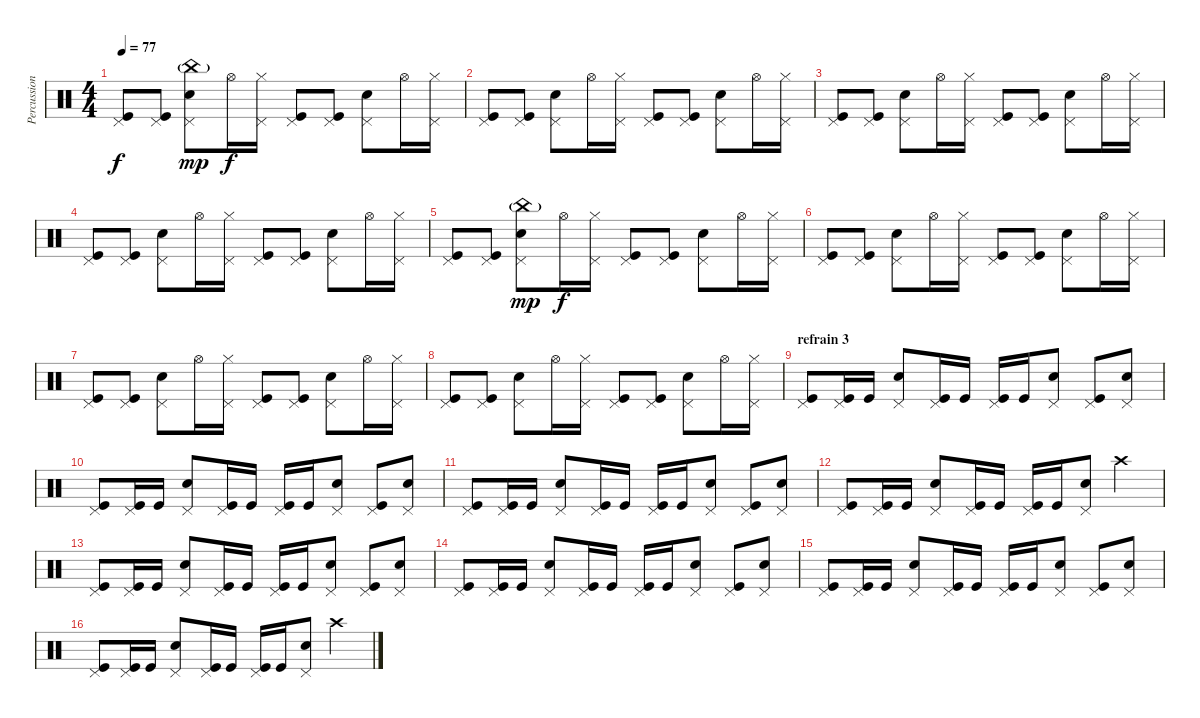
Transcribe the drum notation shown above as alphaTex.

\track ("Percussions" "Percussion") {instrument percussion}
\staff {score}
\articulation defaults
\ts (4 4)
\tempo 77
\clef neutral
\ks c
("Pedal Hi-Hat (hit)" "Kick (hit)").8{dy f volume 6} ("Pedal Hi-Hat (hit)" "Kick (hit)").8 ("China (hit)"{g} "Pedal Hi-Hat (hit)" "Electric Snare (hit)").8{dy mp} "Hi-Hat (open)".16{dy f} ("Hi-Hat (closed)" "Pedal Hi-Hat (hit)").16 ("Pedal Hi-Hat (hit)" "Kick (hit)").8 ("Pedal Hi-Hat (hit)" "Kick (hit)").8 ("Pedal Hi-Hat (hit)" "Electric Snare (hit)").8 "Hi-Hat (open)".16 ("Hi-Hat (closed)" "Pedal Hi-Hat (hit)").16 |
("Pedal Hi-Hat (hit)" "Kick (hit)").8 ("Pedal Hi-Hat (hit)" "Kick (hit)").8 ("Pedal Hi-Hat (hit)" "Electric Snare (hit)").8 "Hi-Hat (open)".16 ("Hi-Hat (closed)" "Pedal Hi-Hat (hit)").16 ("Pedal Hi-Hat (hit)" "Kick (hit)").8 ("Pedal Hi-Hat (hit)" "Kick (hit)").8 ("Pedal Hi-Hat (hit)" "Electric Snare (hit)").8 "Hi-Hat (open)".16 ("Hi-Hat (closed)" "Pedal Hi-Hat (hit)").16 |
("Pedal Hi-Hat (hit)" "Kick (hit)").8 ("Pedal Hi-Hat (hit)" "Kick (hit)").8 ("Pedal Hi-Hat (hit)" "Electric Snare (hit)").8 "Hi-Hat (open)".16 ("Hi-Hat (closed)" "Pedal Hi-Hat (hit)").16 ("Pedal Hi-Hat (hit)" "Kick (hit)").8 ("Pedal Hi-Hat (hit)" "Kick (hit)").8 ("Pedal Hi-Hat (hit)" "Electric Snare (hit)").8 "Hi-Hat (open)".16 ("Hi-Hat (closed)" "Pedal Hi-Hat (hit)").16 |
("Pedal Hi-Hat (hit)" "Kick (hit)").8 ("Pedal Hi-Hat (hit)" "Kick (hit)").8 ("Pedal Hi-Hat (hit)" "Electric Snare (hit)").8 "Hi-Hat (open)".16 ("Hi-Hat (closed)" "Pedal Hi-Hat (hit)").16 ("Pedal Hi-Hat (hit)" "Kick (hit)").8 ("Pedal Hi-Hat (hit)" "Kick (hit)").8 ("Pedal Hi-Hat (hit)" "Electric Snare (hit)").8 "Hi-Hat (open)".16 ("Hi-Hat (closed)" "Pedal Hi-Hat (hit)").16 |
("Pedal Hi-Hat (hit)" "Kick (hit)").8{volume 6} ("Pedal Hi-Hat (hit)" "Kick (hit)").8 ("China (hit)"{g} "Pedal Hi-Hat (hit)" "Electric Snare (hit)").8{dy mp} "Hi-Hat (open)".16{dy f} ("Hi-Hat (closed)" "Pedal Hi-Hat (hit)").16 ("Pedal Hi-Hat (hit)" "Kick (hit)").8 ("Pedal Hi-Hat (hit)" "Kick (hit)").8 ("Pedal Hi-Hat (hit)" "Electric Snare (hit)").8 "Hi-Hat (open)".16 ("Hi-Hat (closed)" "Pedal Hi-Hat (hit)").16 |
("Pedal Hi-Hat (hit)" "Kick (hit)").8 ("Pedal Hi-Hat (hit)" "Kick (hit)").8 ("Pedal Hi-Hat (hit)" "Electric Snare (hit)").8 "Hi-Hat (open)".16 ("Hi-Hat (closed)" "Pedal Hi-Hat (hit)").16 ("Pedal Hi-Hat (hit)" "Kick (hit)").8 ("Pedal Hi-Hat (hit)" "Kick (hit)").8 ("Pedal Hi-Hat (hit)" "Electric Snare (hit)").8 "Hi-Hat (open)".16 ("Hi-Hat (closed)" "Pedal Hi-Hat (hit)").16 |
("Pedal Hi-Hat (hit)" "Kick (hit)").8 ("Pedal Hi-Hat (hit)" "Kick (hit)").8 ("Pedal Hi-Hat (hit)" "Electric Snare (hit)").8 "Hi-Hat (open)".16 ("Hi-Hat (closed)" "Pedal Hi-Hat (hit)").16 ("Pedal Hi-Hat (hit)" "Kick (hit)").8 ("Pedal Hi-Hat (hit)" "Kick (hit)").8 ("Pedal Hi-Hat (hit)" "Electric Snare (hit)").8 "Hi-Hat (open)".16 ("Hi-Hat (closed)" "Pedal Hi-Hat (hit)").16 |
("Pedal Hi-Hat (hit)" "Kick (hit)").8 ("Pedal Hi-Hat (hit)" "Kick (hit)").8 ("Pedal Hi-Hat (hit)" "Electric Snare (hit)").8 "Hi-Hat (open)".16 ("Hi-Hat (closed)" "Pedal Hi-Hat (hit)").16 ("Pedal Hi-Hat (hit)" "Kick (hit)").8 ("Pedal Hi-Hat (hit)" "Kick (hit)").8 ("Pedal Hi-Hat (hit)" "Electric Snare (hit)").8 "Hi-Hat (open)".16 ("Hi-Hat (closed)" "Pedal Hi-Hat (hit)").16 |
\section ("" "refrain 3")
("Pedal Hi-Hat (hit)" "Kick (hit)").8{volume 14} ("Pedal Hi-Hat (hit)" "Kick (hit)").16 "Kick (hit)".16 ("Pedal Hi-Hat (hit)" "Electric Snare (hit)").8 ("Pedal Hi-Hat (hit)" "Kick (hit)").16 "Kick (hit)".16 ("Pedal Hi-Hat (hit)" "Kick (hit)").16 "Kick (hit)".16 ("Pedal Hi-Hat (hit)" "Electric Snare (hit)").8 ("Pedal Hi-Hat (hit)" "Kick (hit)").8 ("Pedal Hi-Hat (hit)" "Electric Snare (hit)").8 |
("Pedal Hi-Hat (hit)" "Kick (hit)").8{volume 14} ("Pedal Hi-Hat (hit)" "Kick (hit)").16 "Kick (hit)".16 ("Pedal Hi-Hat (hit)" "Electric Snare (hit)").8 ("Pedal Hi-Hat (hit)" "Kick (hit)").16 "Kick (hit)".16 ("Pedal Hi-Hat (hit)" "Kick (hit)").16 "Kick (hit)".16 ("Pedal Hi-Hat (hit)" "Electric Snare (hit)").8 ("Pedal Hi-Hat (hit)" "Kick (hit)").8 ("Pedal Hi-Hat (hit)" "Electric Snare (hit)").8 |
("Pedal Hi-Hat (hit)" "Kick (hit)").8{volume 14} ("Pedal Hi-Hat (hit)" "Kick (hit)").16 "Kick (hit)".16 ("Pedal Hi-Hat (hit)" "Electric Snare (hit)").8 ("Pedal Hi-Hat (hit)" "Kick (hit)").16 "Kick (hit)".16 ("Pedal Hi-Hat (hit)" "Kick (hit)").16 "Kick (hit)".16 ("Pedal Hi-Hat (hit)" "Electric Snare (hit)").8 ("Pedal Hi-Hat (hit)" "Kick (hit)").8 ("Pedal Hi-Hat (hit)" "Electric Snare (hit)").8 |
("Pedal Hi-Hat (hit)" "Kick (hit)").8{volume 14} ("Pedal Hi-Hat (hit)" "Kick (hit)").16 "Kick (hit)".16 ("Pedal Hi-Hat (hit)" "Electric Snare (hit)").8 ("Pedal Hi-Hat (hit)" "Kick (hit)").16 "Kick (hit)".16 ("Pedal Hi-Hat (hit)" "Kick (hit)").16 "Kick (hit)".16 ("Pedal Hi-Hat (hit)" "Electric Snare (hit)").8 "Crash high (hit)".4 |
("Pedal Hi-Hat (hit)" "Kick (hit)").8{volume 14} ("Pedal Hi-Hat (hit)" "Kick (hit)").16 "Kick (hit)".16 ("Pedal Hi-Hat (hit)" "Electric Snare (hit)").8 ("Pedal Hi-Hat (hit)" "Kick (hit)").16 "Kick (hit)".16 ("Pedal Hi-Hat (hit)" "Kick (hit)").16 "Kick (hit)".16 ("Pedal Hi-Hat (hit)" "Electric Snare (hit)").8 ("Pedal Hi-Hat (hit)" "Kick (hit)").8 ("Pedal Hi-Hat (hit)" "Electric Snare (hit)").8 |
("Pedal Hi-Hat (hit)" "Kick (hit)").8{volume 14} ("Pedal Hi-Hat (hit)" "Kick (hit)").16 "Kick (hit)".16 ("Pedal Hi-Hat (hit)" "Electric Snare (hit)").8 ("Pedal Hi-Hat (hit)" "Kick (hit)").16 "Kick (hit)".16 ("Pedal Hi-Hat (hit)" "Kick (hit)").16 "Kick (hit)".16 ("Pedal Hi-Hat (hit)" "Electric Snare (hit)").8 ("Pedal Hi-Hat (hit)" "Kick (hit)").8 ("Pedal Hi-Hat (hit)" "Electric Snare (hit)").8 |
("Pedal Hi-Hat (hit)" "Kick (hit)").8{volume 14} ("Pedal Hi-Hat (hit)" "Kick (hit)").16 "Kick (hit)".16 ("Pedal Hi-Hat (hit)" "Electric Snare (hit)").8 ("Pedal Hi-Hat (hit)" "Kick (hit)").16 "Kick (hit)".16 ("Pedal Hi-Hat (hit)" "Kick (hit)").16 "Kick (hit)".16 ("Pedal Hi-Hat (hit)" "Electric Snare (hit)").8 ("Pedal Hi-Hat (hit)" "Kick (hit)").8 ("Pedal Hi-Hat (hit)" "Electric Snare (hit)").8 |
("Pedal Hi-Hat (hit)" "Kick (hit)").8{volume 14} ("Pedal Hi-Hat (hit)" "Kick (hit)").16 "Kick (hit)".16 ("Pedal Hi-Hat (hit)" "Electric Snare (hit)").8 ("Pedal Hi-Hat (hit)" "Kick (hit)").16 "Kick (hit)".16 ("Pedal Hi-Hat (hit)" "Kick (hit)").16 "Kick (hit)".16 ("Pedal Hi-Hat (hit)" "Electric Snare (hit)").8 "Crash high (hit)".4
